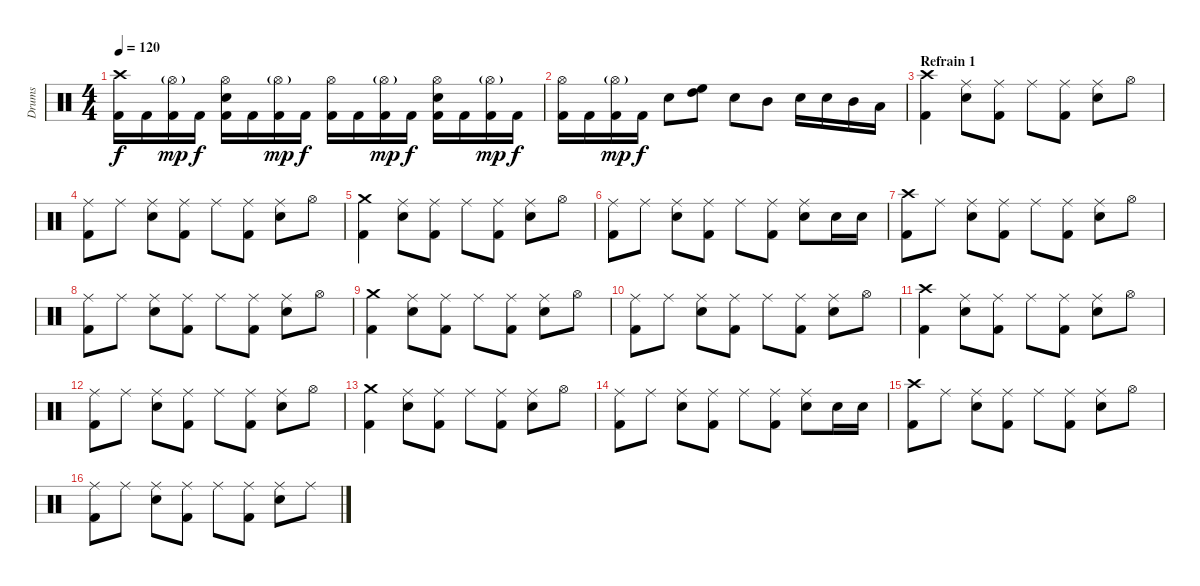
\track ("Drums" "Drums") {instrument percussion}
\staff {score}
\articulation defaults
\ts (4 4)
\tempo 120
\clef neutral
\ks c
("Crash high (hit)" "Kick (hit) 2").16{dy f} "Kick (hit) 2".16 ("Hi-Hat (open)"{g} "Kick (hit) 2").16{dy mp} "Kick (hit) 2".16{dy f} ("Hi-Hat (open)" "Snare (hit) 2" "Kick (hit) 2").16 "Kick (hit) 2".16 ("Hi-Hat (open)"{g} "Kick (hit) 2").16{dy mp} "Kick (hit) 2".16{dy f} ("Hi-Hat (open)" "Kick (hit) 2").16 "Kick (hit) 2".16 ("Hi-Hat (open)"{g} "Kick (hit) 2").16{dy mp} "Kick (hit) 2".16{dy f} ("Hi-Hat (open)" "Snare (hit) 2" "Kick (hit) 2").16 "Kick (hit) 2".16 ("Hi-Hat (open)"{g} "Kick (hit) 2").16{dy mp} "Kick (hit) 2".16{dy f} |
("Hi-Hat (open)" "Kick (hit) 2").16 "Kick (hit) 2".16 ("Hi-Hat (open)"{g} "Kick (hit) 2").16{dy mp} "Kick (hit) 2".16{dy f} "Snare (hit) 2".8 ("High Floor Tom (hit)" "High Tom (hit)").8 "Snare (hit) 2".8 "Mid Tom (hit)".8 "Snare (hit) 2".16 "Snare (hit) 2".16 "Mid Tom (hit)".16 "Low Tom (hit)".16 |
\section ("" "Refrain 1")
("Crash high (hit)" "Kick (hit) 2").4 ("Ride (middle)" "Snare (hit) 2").8 ("Ride (middle)" "Kick (hit) 2").8 "Ride (middle)".8 ("Ride (middle)" "Kick (hit) 2").8 ("Ride (middle)" "Snare (hit) 2").8 "Hi-Hat (open)".8 |
("Ride (middle)" "Kick (hit) 2").8 "Ride (middle)".8 ("Ride (middle)" "Snare (hit) 2").8 ("Ride (middle)" "Kick (hit) 2").8 "Ride (middle)".8 ("Ride (middle)" "Kick (hit) 2").8 ("Ride (middle)" "Snare (hit) 2").8 "Hi-Hat (open)".8 |
("Crash medium (hit)" "Kick (hit) 2").4 ("Ride (middle)" "Snare (hit) 2").8 ("Ride (middle)" "Kick (hit) 2").8 "Ride (middle)".8 ("Ride (middle)" "Kick (hit) 2").8 ("Ride (middle)" "Snare (hit) 2").8 "Hi-Hat (open)".8 |
("Ride (middle)" "Kick (hit) 2").8 "Ride (middle)".8 ("Ride (middle)" "Snare (hit) 2").8 ("Ride (middle)" "Kick (hit) 2").8 "Ride (middle)".8 ("Ride (middle)" "Kick (hit) 2").8 ("Ride (middle)" "Snare (hit) 2").8 "Snare (hit) 2".16 "Snare (hit) 2".16 |
("Crash high (hit)" "Kick (hit) 2").8 "Ride (middle)".8 ("Ride (middle)" "Snare (hit) 2").8 ("Ride (middle)" "Kick (hit) 2").8 "Ride (middle)".8 ("Ride (middle)" "Kick (hit) 2").8 ("Ride (middle)" "Snare (hit) 2").8 "Hi-Hat (open)".8 |
("Ride (middle)" "Kick (hit) 2").8 "Ride (middle)".8 ("Ride (middle)" "Snare (hit) 2").8 ("Ride (middle)" "Kick (hit) 2").8 "Ride (middle)".8 ("Ride (middle)" "Kick (hit) 2").8 ("Ride (middle)" "Snare (hit) 2").8 "Hi-Hat (open)".8 |
("Crash medium (hit)" "Kick (hit) 2").4 ("Ride (middle)" "Snare (hit) 2").8 ("Ride (middle)" "Kick (hit) 2").8 "Ride (middle)".8 ("Ride (middle)" "Kick (hit) 2").8 ("Ride (middle)" "Snare (hit) 2").8 "Hi-Hat (open)".8 |
("Ride (middle)" "Kick (hit) 2").8 "Ride (middle)".8 ("Ride (middle)" "Snare (hit) 2").8 ("Ride (middle)" "Kick (hit) 2").8 "Ride (middle)".8 ("Ride (middle)" "Kick (hit) 2").8 ("Ride (middle)" "Snare (hit) 2").8 "Hi-Hat (open)".8 |
("Crash high (hit)" "Kick (hit) 2").4 ("Ride (middle)" "Snare (hit) 2").8 ("Ride (middle)" "Kick (hit) 2").8 "Ride (middle)".8 ("Ride (middle)" "Kick (hit) 2").8 ("Ride (middle)" "Snare (hit) 2").8 "Hi-Hat (open)".8 |
("Ride (middle)" "Kick (hit) 2").8 "Ride (middle)".8 ("Ride (middle)" "Snare (hit) 2").8 ("Ride (middle)" "Kick (hit) 2").8 "Ride (middle)".8 ("Ride (middle)" "Kick (hit) 2").8 ("Ride (middle)" "Snare (hit) 2").8 "Hi-Hat (open)".8 |
("Crash medium (hit)" "Kick (hit) 2").4 ("Ride (middle)" "Snare (hit) 2").8 ("Ride (middle)" "Kick (hit) 2").8 "Ride (middle)".8 ("Ride (middle)" "Kick (hit) 2").8 ("Ride (middle)" "Snare (hit) 2").8 "Hi-Hat (open)".8 |
("Ride (middle)" "Kick (hit) 2").8 "Ride (middle)".8 ("Ride (middle)" "Snare (hit) 2").8 ("Ride (middle)" "Kick (hit) 2").8 "Ride (middle)".8 ("Ride (middle)" "Kick (hit) 2").8 ("Ride (middle)" "Snare (hit) 2").8 "Snare (hit) 2".16 "Snare (hit) 2".16 |
("Crash high (hit)" "Kick (hit) 2").8 "Ride (middle)".8 ("Ride (middle)" "Snare (hit) 2").8 ("Ride (middle)" "Kick (hit) 2").8 "Ride (middle)".8 ("Ride (middle)" "Kick (hit) 2").8 ("Ride (middle)" "Snare (hit) 2").8 "Hi-Hat (open)".8 |
("Ride (middle)" "Kick (hit) 2").8 "Ride (middle)".8 ("Ride (middle)" "Snare (hit) 2").8 ("Ride (middle)" "Kick (hit) 2").8 "Ride (middle)".8 ("Ride (middle)" "Kick (hit) 2").8 ("Ride (middle)" "Snare (hit) 2").8 "Ride (middle)".8
